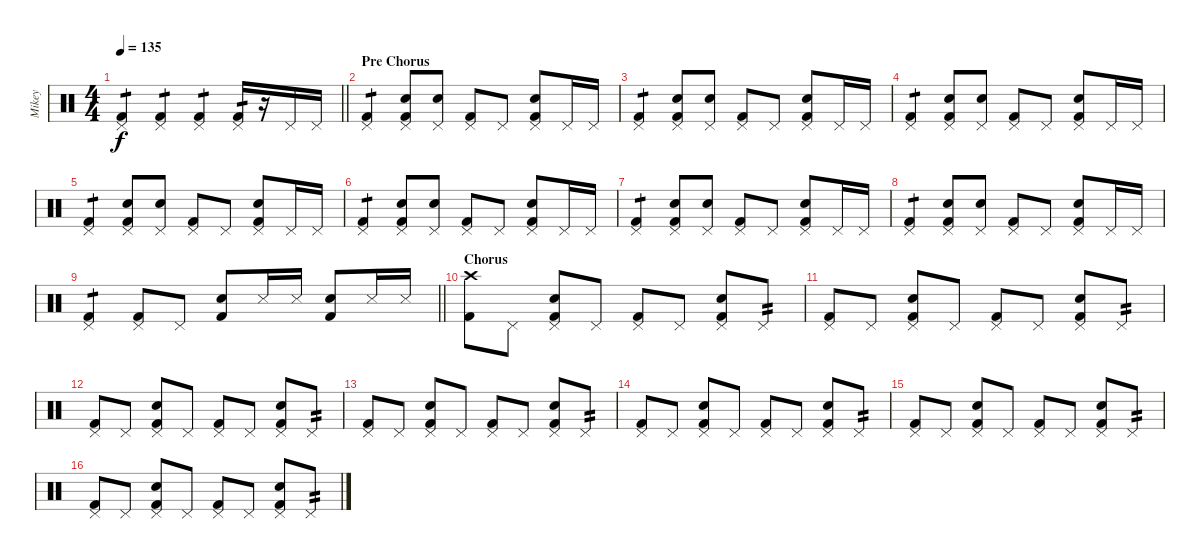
\track ("Mikey" "Mikey") {instrument percussion}
\staff {score}
\articulation defaults
\ts (4 4)
\tempo 135
\clef neutral
\barLineRight lightlight
\ks c
("Pedal Hi-Hat (hit)" "Kick (hit) 2").4{tp 1 dy f} ("Pedal Hi-Hat (hit)" "Kick (hit) 2").4{tp 1} ("Pedal Hi-Hat (hit)" "Kick (hit) 2").4{tp 1} ("Pedal Hi-Hat (hit)" "Kick (hit) 2").16{tp 1} r.16 "Pedal Hi-Hat (hit)".16 "Pedal Hi-Hat (hit)".16 |
\section ("" "Pre Chorus")
("Pedal Hi-Hat (hit)" "Kick (hit) 2").4{tp 1} ("Pedal Hi-Hat (hit)" "Snare (hit) 2" "Kick (hit) 2").8 ("Pedal Hi-Hat (hit)" "Snare (hit) 2").8 ("Pedal Hi-Hat (hit)" "Kick (hit) 2").8 "Pedal Hi-Hat (hit)".8 ("Pedal Hi-Hat (hit)" "Snare (hit) 2" "Kick (hit) 2").8 "Pedal Hi-Hat (hit)".16 "Pedal Hi-Hat (hit)".16 |
("Pedal Hi-Hat (hit)" "Kick (hit) 2").4{tp 1} ("Pedal Hi-Hat (hit)" "Snare (hit) 2" "Kick (hit) 2").8 ("Pedal Hi-Hat (hit)" "Snare (hit) 2").8 ("Pedal Hi-Hat (hit)" "Kick (hit) 2").8 "Pedal Hi-Hat (hit)".8 ("Pedal Hi-Hat (hit)" "Snare (hit) 2" "Kick (hit) 2").8 "Pedal Hi-Hat (hit)".16 "Pedal Hi-Hat (hit)".16 |
("Pedal Hi-Hat (hit)" "Kick (hit) 2").4{tp 1} ("Pedal Hi-Hat (hit)" "Snare (hit) 2" "Kick (hit) 2").8 ("Pedal Hi-Hat (hit)" "Snare (hit) 2").8 ("Pedal Hi-Hat (hit)" "Kick (hit) 2").8 "Pedal Hi-Hat (hit)".8 ("Pedal Hi-Hat (hit)" "Snare (hit) 2" "Kick (hit) 2").8 "Pedal Hi-Hat (hit)".16 "Pedal Hi-Hat (hit)".16 |
("Pedal Hi-Hat (hit)" "Kick (hit) 2").4{tp 1} ("Pedal Hi-Hat (hit)" "Snare (hit) 2" "Kick (hit) 2").8 ("Pedal Hi-Hat (hit)" "Snare (hit) 2").8 ("Pedal Hi-Hat (hit)" "Kick (hit) 2").8 "Pedal Hi-Hat (hit)".8 ("Pedal Hi-Hat (hit)" "Snare (hit) 2" "Kick (hit) 2").8 "Pedal Hi-Hat (hit)".16 "Pedal Hi-Hat (hit)".16 |
("Pedal Hi-Hat (hit)" "Kick (hit) 2").4{tp 1} ("Pedal Hi-Hat (hit)" "Snare (hit) 2" "Kick (hit) 2").8 ("Pedal Hi-Hat (hit)" "Snare (hit) 2").8 ("Pedal Hi-Hat (hit)" "Kick (hit) 2").8 "Pedal Hi-Hat (hit)".8 ("Pedal Hi-Hat (hit)" "Snare (hit) 2" "Kick (hit) 2").8 "Pedal Hi-Hat (hit)".16 "Pedal Hi-Hat (hit)".16 |
("Pedal Hi-Hat (hit)" "Kick (hit) 2").4{tp 1} ("Pedal Hi-Hat (hit)" "Snare (hit) 2" "Kick (hit) 2").8 ("Pedal Hi-Hat (hit)" "Snare (hit) 2").8 ("Pedal Hi-Hat (hit)" "Kick (hit) 2").8 "Pedal Hi-Hat (hit)".8 ("Pedal Hi-Hat (hit)" "Snare (hit) 2" "Kick (hit) 2").8 "Pedal Hi-Hat (hit)".16 "Pedal Hi-Hat (hit)".16 |
("Pedal Hi-Hat (hit)" "Kick (hit) 2").4{tp 1} ("Pedal Hi-Hat (hit)" "Snare (hit) 2" "Kick (hit) 2").8 ("Pedal Hi-Hat (hit)" "Snare (hit) 2").8 ("Pedal Hi-Hat (hit)" "Kick (hit) 2").8 "Pedal Hi-Hat (hit)".8 ("Pedal Hi-Hat (hit)" "Snare (hit) 2" "Kick (hit) 2").8 "Pedal Hi-Hat (hit)".16 "Pedal Hi-Hat (hit)".16 |
\barLineRight lightlight
("Pedal Hi-Hat (hit)" "Kick (hit) 2").4{tp 1} ("Pedal Hi-Hat (hit)" "Kick (hit) 2").8 "Pedal Hi-Hat (hit)".8 ("Snare (hit) 2" "Kick (hit) 2").8 "Snare (side stick) 3".16 "Snare (side stick) 3".16 ("Snare (hit) 2" "Kick (hit) 2").8 "Snare (side stick) 3".16 "Snare (side stick) 3".16 |
\section ("" "Chorus")
("Crash high (hit)" "Kick (hit) 2").8 "Pedal Hi-Hat (hit)".8 ("Pedal Hi-Hat (hit)" "Snare (hit) 2" "Kick (hit) 2").8 "Pedal Hi-Hat (hit)".8 ("Pedal Hi-Hat (hit)" "Kick (hit) 2").8 "Pedal Hi-Hat (hit)".8 ("Pedal Hi-Hat (hit)" "Snare (hit) 2" "Kick (hit) 2").8 "Pedal Hi-Hat (hit)".8{tp 2} |
("Pedal Hi-Hat (hit)" "Kick (hit) 2").8 "Pedal Hi-Hat (hit)".8 ("Pedal Hi-Hat (hit)" "Snare (hit) 2" "Kick (hit) 2").8 "Pedal Hi-Hat (hit)".8 ("Pedal Hi-Hat (hit)" "Kick (hit) 2").8 "Pedal Hi-Hat (hit)".8 ("Pedal Hi-Hat (hit)" "Snare (hit) 2" "Kick (hit) 2").8 "Pedal Hi-Hat (hit)".8{tp 2} |
("Pedal Hi-Hat (hit)" "Kick (hit) 2").8 "Pedal Hi-Hat (hit)".8 ("Pedal Hi-Hat (hit)" "Snare (hit) 2" "Kick (hit) 2").8 "Pedal Hi-Hat (hit)".8 ("Pedal Hi-Hat (hit)" "Kick (hit) 2").8 "Pedal Hi-Hat (hit)".8 ("Pedal Hi-Hat (hit)" "Snare (hit) 2" "Kick (hit) 2").8 "Pedal Hi-Hat (hit)".8{tp 2} |
("Pedal Hi-Hat (hit)" "Kick (hit) 2").8 "Pedal Hi-Hat (hit)".8 ("Pedal Hi-Hat (hit)" "Snare (hit) 2" "Kick (hit) 2").8 "Pedal Hi-Hat (hit)".8 ("Pedal Hi-Hat (hit)" "Kick (hit) 2").8 "Pedal Hi-Hat (hit)".8 ("Pedal Hi-Hat (hit)" "Snare (hit) 2" "Kick (hit) 2").8 "Pedal Hi-Hat (hit)".8{tp 2} |
("Pedal Hi-Hat (hit)" "Kick (hit) 2").8 "Pedal Hi-Hat (hit)".8 ("Pedal Hi-Hat (hit)" "Snare (hit) 2" "Kick (hit) 2").8 "Pedal Hi-Hat (hit)".8 ("Pedal Hi-Hat (hit)" "Kick (hit) 2").8 "Pedal Hi-Hat (hit)".8 ("Pedal Hi-Hat (hit)" "Snare (hit) 2" "Kick (hit) 2").8 "Pedal Hi-Hat (hit)".8{tp 2} |
("Pedal Hi-Hat (hit)" "Kick (hit) 2").8 "Pedal Hi-Hat (hit)".8 ("Pedal Hi-Hat (hit)" "Snare (hit) 2" "Kick (hit) 2").8 "Pedal Hi-Hat (hit)".8 ("Pedal Hi-Hat (hit)" "Kick (hit) 2").8 "Pedal Hi-Hat (hit)".8 ("Pedal Hi-Hat (hit)" "Snare (hit) 2" "Kick (hit) 2").8 "Pedal Hi-Hat (hit)".8{tp 2} |
("Pedal Hi-Hat (hit)" "Kick (hit) 2").8 "Pedal Hi-Hat (hit)".8 ("Pedal Hi-Hat (hit)" "Snare (hit) 2" "Kick (hit) 2").8 "Pedal Hi-Hat (hit)".8 ("Pedal Hi-Hat (hit)" "Kick (hit) 2").8 "Pedal Hi-Hat (hit)".8 ("Pedal Hi-Hat (hit)" "Snare (hit) 2" "Kick (hit) 2").8 "Pedal Hi-Hat (hit)".8{tp 2}
